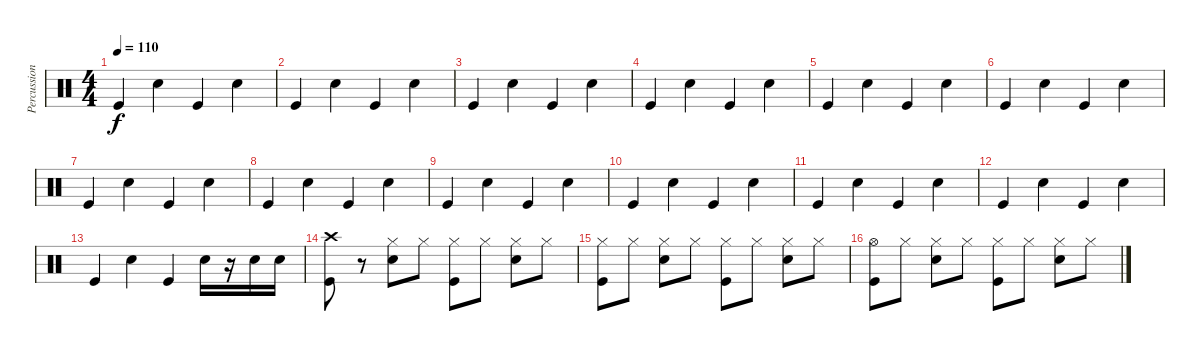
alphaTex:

\track ("Percussion" "Percussion") {instrument percussion}
\staff {score}
\articulation defaults
\ts (4 4)
\tempo 110
\clef neutral
\ks c "Kick (hit)".4{dy f} "Snare (hit) 2".4 "Kick (hit)".4 "Snare (hit) 2".4
|
"Kick (hit)".4 "Snare (hit) 2".4 "Kick (hit)".4 "Snare (hit) 2".4 |
"Kick (hit)".4 "Snare (hit) 2".4 "Kick (hit)".4 "Snare (hit) 2".4 |
"Kick (hit)".4 "Snare (hit) 2".4 "Kick (hit)".4 "Snare (hit) 2".4 |
"Kick (hit)".4 "Snare (hit) 2".4 "Kick (hit)".4 "Snare (hit) 2".4 |
"Kick (hit)".4 "Snare (hit) 2".4 "Kick (hit)".4 "Snare (hit) 2".4 |
"Kick (hit)".4 "Snare (hit) 2".4 "Kick (hit)".4 "Snare (hit) 2".4 |
"Kick (hit)".4 "Snare (hit) 2".4 "Kick (hit)".4 "Snare (hit) 2".4 |
"Kick (hit)".4 "Snare (hit) 2".4 "Kick (hit)".4 "Snare (hit) 2".4 |
"Kick (hit)".4 "Snare (hit) 2".4 "Kick (hit)".4 "Snare (hit) 2".4 |
"Kick (hit)".4 "Snare (hit) 2".4 "Kick (hit)".4 "Snare (hit) 2".4 |
"Kick (hit)".4 "Snare (hit) 2".4 "Kick (hit)".4 "Snare (hit) 2".4 |
"Kick (hit)".4 "Snare (hit) 2".4 "Kick (hit)".4 "Snare (hit) 2".16 r.16 "Snare (hit) 2".16 "Snare (hit) 2".16 |
("Crash high (hit)" "Kick (hit)").8 r.8 ("Hi-Hat (closed)" "Snare (hit) 2").8 "Hi-Hat (closed)".8 ("Hi-Hat (closed)" "Kick (hit)").8 "Hi-Hat (closed)".8 ("Hi-Hat (closed)" "Snare (hit) 2").8 "Hi-Hat (closed)".8 |
("Hi-Hat (closed)" "Kick (hit)").8 "Hi-Hat (closed)".8 ("Hi-Hat (closed)" "Snare (hit) 2").8 "Hi-Hat (closed)".8 ("Hi-Hat (closed)" "Kick (hit)").8 "Hi-Hat (closed)".8 ("Hi-Hat (closed)" "Snare (hit) 2").8 "Hi-Hat (closed)".8 |
("Hi-Hat (open)" "Kick (hit)").8 "Hi-Hat (closed)".8 ("Hi-Hat (closed)" "Snare (hit) 2").8 "Hi-Hat (closed)".8 ("Hi-Hat (closed)" "Kick (hit)").8 "Hi-Hat (closed)".8 ("Hi-Hat (closed)" "Snare (hit) 2").8 "Hi-Hat (closed)".8
